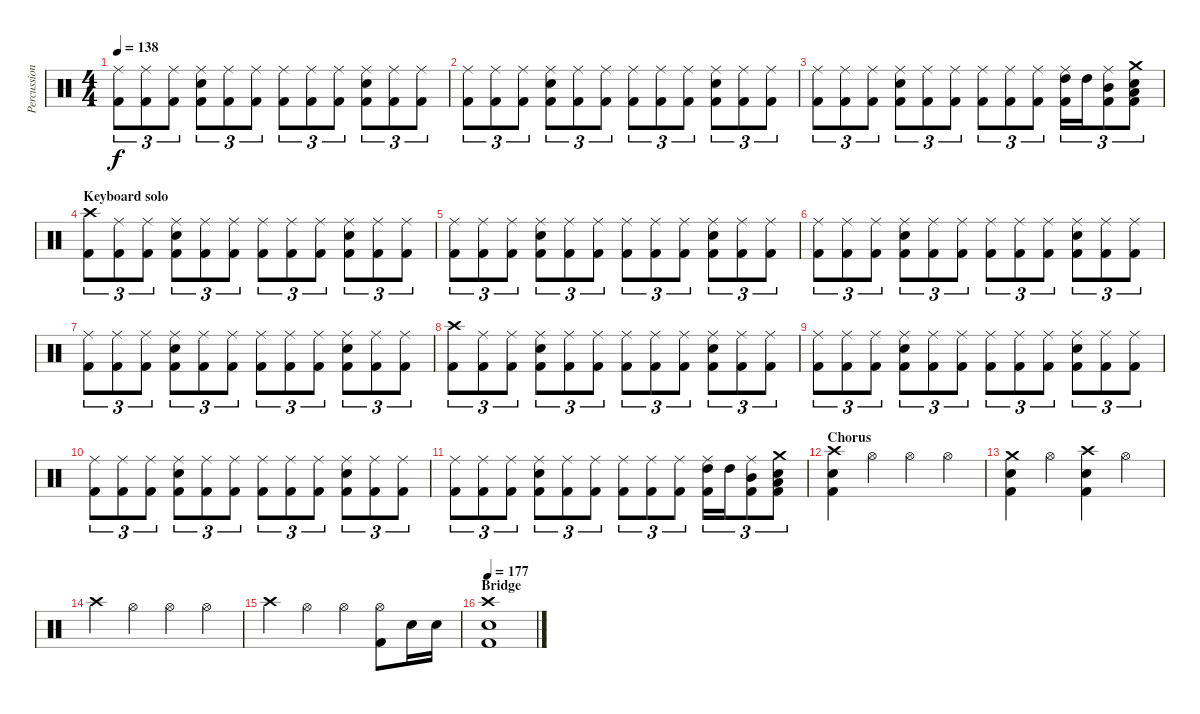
\track ("Percussion" "Percussion") {instrument percussion}
\staff {score}
\articulation defaults
\ts (4 4)
\tempo 138
\clef neutral
\ks c
("Ride (middle)" "Kick (hit) 2").8{tu (3 2) dy f} ("Ride (middle)" "Kick (hit) 2").8{tu (3 2)} ("Ride (middle)" "Kick (hit) 2").8{tu (3 2)} ("Ride (middle)" "Electric Snare (hit)" "Kick (hit) 2").8{tu (3 2)} ("Ride (middle)" "Kick (hit) 2").8{tu (3 2)} ("Ride (middle)" "Kick (hit) 2").8{tu (3 2)} ("Ride (middle)" "Kick (hit) 2").8{tu (3 2)} ("Ride (middle)" "Kick (hit) 2").8{tu (3 2)} ("Ride (middle)" "Kick (hit) 2").8{tu (3 2)} ("Ride (middle)" "Electric Snare (hit)" "Kick (hit) 2").8{tu (3 2)} ("Ride (middle)" "Kick (hit) 2").8{tu (3 2)} ("Ride (middle)" "Kick (hit) 2").8{tu (3 2)} |
("Ride (middle)" "Kick (hit) 2").8{tu (3 2)} ("Ride (middle)" "Kick (hit) 2").8{tu (3 2)} ("Ride (middle)" "Kick (hit) 2").8{tu (3 2)} ("Ride (middle)" "Electric Snare (hit)" "Kick (hit) 2").8{tu (3 2)} ("Ride (middle)" "Kick (hit) 2").8{tu (3 2)} ("Ride (middle)" "Kick (hit) 2").8{tu (3 2)} ("Ride (middle)" "Kick (hit) 2").8{tu (3 2)} ("Ride (middle)" "Kick (hit) 2").8{tu (3 2)} ("Ride (middle)" "Kick (hit) 2").8{tu (3 2)} ("Ride (middle)" "Electric Snare (hit)" "Kick (hit) 2").8{tu (3 2)} ("Ride (middle)" "Kick (hit) 2").8{tu (3 2)} ("Ride (middle)" "Kick (hit) 2").8{tu (3 2)} |
("Ride (middle)" "Kick (hit) 2").8{tu (3 2)} ("Ride (middle)" "Kick (hit) 2").8{tu (3 2)} ("Ride (middle)" "Kick (hit) 2").8{tu (3 2)} ("Ride (middle)" "Electric Snare (hit)" "Kick (hit) 2").8{tu (3 2)} ("Ride (middle)" "Kick (hit) 2").8{tu (3 2)} ("Ride (middle)" "Kick (hit) 2").8{tu (3 2)} ("Ride (middle)" "Kick (hit) 2").8{tu (3 2)} ("Ride (middle)" "Kick (hit) 2").8{tu (3 2)} ("Ride (middle)" "Kick (hit) 2").8{tu (3 2)} ("Ride (middle)" "High Tom (hit)" "Kick (hit) 2").16{tu (3 2)} "High Tom (hit)".16{tu (3 2)} ("Ride (middle)" "Mid Tom (hit)" "Kick (hit) 2").8{tu (3 2)} ("Crash medium (hit)" "Low Floor Tom (hit)" "Electric Snare (hit)" "Kick (hit) 2").8{tu (3 2)} |
\section ("" "Keyboard solo")
("Crash high (hit)" "Kick (hit) 2").8{tu (3 2)} ("Ride (middle)" "Kick (hit) 2").8{tu (3 2)} ("Ride (middle)" "Kick (hit) 2").8{tu (3 2)} ("Ride (middle)" "Electric Snare (hit)" "Kick (hit) 2").8{tu (3 2)} ("Ride (middle)" "Kick (hit) 2").8{tu (3 2)} ("Ride (middle)" "Kick (hit) 2").8{tu (3 2)} ("Ride (middle)" "Kick (hit) 2").8{tu (3 2)} ("Ride (middle)" "Kick (hit) 2").8{tu (3 2)} ("Ride (middle)" "Kick (hit) 2").8{tu (3 2)} ("Ride (middle)" "Electric Snare (hit)" "Kick (hit) 2").8{tu (3 2)} ("Ride (middle)" "Kick (hit) 2").8{tu (3 2)} ("Ride (middle)" "Kick (hit) 2").8{tu (3 2)} |
("Ride (middle)" "Kick (hit) 2").8{tu (3 2)} ("Ride (middle)" "Kick (hit) 2").8{tu (3 2)} ("Ride (middle)" "Kick (hit) 2").8{tu (3 2)} ("Ride (middle)" "Electric Snare (hit)" "Kick (hit) 2").8{tu (3 2)} ("Ride (middle)" "Kick (hit) 2").8{tu (3 2)} ("Ride (middle)" "Kick (hit) 2").8{tu (3 2)} ("Ride (middle)" "Kick (hit) 2").8{tu (3 2)} ("Ride (middle)" "Kick (hit) 2").8{tu (3 2)} ("Ride (middle)" "Kick (hit) 2").8{tu (3 2)} ("Ride (middle)" "Electric Snare (hit)" "Kick (hit) 2").8{tu (3 2)} ("Ride (middle)" "Kick (hit) 2").8{tu (3 2)} ("Ride (middle)" "Kick (hit) 2").8{tu (3 2)} |
("Ride (middle)" "Kick (hit) 2").8{tu (3 2)} ("Ride (middle)" "Kick (hit) 2").8{tu (3 2)} ("Ride (middle)" "Kick (hit) 2").8{tu (3 2)} ("Ride (middle)" "Electric Snare (hit)" "Kick (hit) 2").8{tu (3 2)} ("Ride (middle)" "Kick (hit) 2").8{tu (3 2)} ("Ride (middle)" "Kick (hit) 2").8{tu (3 2)} ("Ride (middle)" "Kick (hit) 2").8{tu (3 2)} ("Ride (middle)" "Kick (hit) 2").8{tu (3 2)} ("Ride (middle)" "Kick (hit) 2").8{tu (3 2)} ("Ride (middle)" "Electric Snare (hit)" "Kick (hit) 2").8{tu (3 2)} ("Ride (middle)" "Kick (hit) 2").8{tu (3 2)} ("Ride (middle)" "Kick (hit) 2").8{tu (3 2)} |
("Ride (middle)" "Kick (hit) 2").8{tu (3 2)} ("Ride (middle)" "Kick (hit) 2").8{tu (3 2)} ("Ride (middle)" "Kick (hit) 2").8{tu (3 2)} ("Ride (middle)" "Electric Snare (hit)" "Kick (hit) 2").8{tu (3 2)} ("Ride (middle)" "Kick (hit) 2").8{tu (3 2)} ("Ride (middle)" "Kick (hit) 2").8{tu (3 2)} ("Ride (middle)" "Kick (hit) 2").8{tu (3 2)} ("Ride (middle)" "Kick (hit) 2").8{tu (3 2)} ("Ride (middle)" "Kick (hit) 2").8{tu (3 2)} ("Ride (middle)" "Electric Snare (hit)" "Kick (hit) 2").8{tu (3 2)} ("Ride (middle)" "Kick (hit) 2").8{tu (3 2)} ("Ride (middle)" "Kick (hit) 2").8{tu (3 2)} |
("Crash high (hit)" "Kick (hit) 2").8{tu (3 2)} ("Ride (middle)" "Kick (hit) 2").8{tu (3 2)} ("Ride (middle)" "Kick (hit) 2").8{tu (3 2)} ("Ride (middle)" "Electric Snare (hit)" "Kick (hit) 2").8{tu (3 2)} ("Ride (middle)" "Kick (hit) 2").8{tu (3 2)} ("Ride (middle)" "Kick (hit) 2").8{tu (3 2)} ("Ride (middle)" "Kick (hit) 2").8{tu (3 2)} ("Ride (middle)" "Kick (hit) 2").8{tu (3 2)} ("Ride (middle)" "Kick (hit) 2").8{tu (3 2)} ("Ride (middle)" "Electric Snare (hit)" "Kick (hit) 2").8{tu (3 2)} ("Ride (middle)" "Kick (hit) 2").8{tu (3 2)} ("Ride (middle)" "Kick (hit) 2").8{tu (3 2)} |
("Ride (middle)" "Kick (hit) 2").8{tu (3 2)} ("Ride (middle)" "Kick (hit) 2").8{tu (3 2)} ("Ride (middle)" "Kick (hit) 2").8{tu (3 2)} ("Ride (middle)" "Electric Snare (hit)" "Kick (hit) 2").8{tu (3 2)} ("Ride (middle)" "Kick (hit) 2").8{tu (3 2)} ("Ride (middle)" "Kick (hit) 2").8{tu (3 2)} ("Ride (middle)" "Kick (hit) 2").8{tu (3 2)} ("Ride (middle)" "Kick (hit) 2").8{tu (3 2)} ("Ride (middle)" "Kick (hit) 2").8{tu (3 2)} ("Ride (middle)" "Electric Snare (hit)" "Kick (hit) 2").8{tu (3 2)} ("Ride (middle)" "Kick (hit) 2").8{tu (3 2)} ("Ride (middle)" "Kick (hit) 2").8{tu (3 2)} |
("Ride (middle)" "Kick (hit) 2").8{tu (3 2)} ("Ride (middle)" "Kick (hit) 2").8{tu (3 2)} ("Ride (middle)" "Kick (hit) 2").8{tu (3 2)} ("Ride (middle)" "Electric Snare (hit)" "Kick (hit) 2").8{tu (3 2)} ("Ride (middle)" "Kick (hit) 2").8{tu (3 2)} ("Ride (middle)" "Kick (hit) 2").8{tu (3 2)} ("Ride (middle)" "Kick (hit) 2").8{tu (3 2)} ("Ride (middle)" "Kick (hit) 2").8{tu (3 2)} ("Ride (middle)" "Kick (hit) 2").8{tu (3 2)} ("Ride (middle)" "Electric Snare (hit)" "Kick (hit) 2").8{tu (3 2)} ("Ride (middle)" "Kick (hit) 2").8{tu (3 2)} ("Ride (middle)" "Kick (hit) 2").8{tu (3 2)} |
("Ride (middle)" "Kick (hit) 2").8{tu (3 2)} ("Ride (middle)" "Kick (hit) 2").8{tu (3 2)} ("Ride (middle)" "Kick (hit) 2").8{tu (3 2)} ("Ride (middle)" "Electric Snare (hit)" "Kick (hit) 2").8{tu (3 2)} ("Ride (middle)" "Kick (hit) 2").8{tu (3 2)} ("Ride (middle)" "Kick (hit) 2").8{tu (3 2)} ("Ride (middle)" "Kick (hit) 2").8{tu (3 2)} ("Ride (middle)" "Kick (hit) 2").8{tu (3 2)} ("Ride (middle)" "Kick (hit) 2").8{tu (3 2)} ("Ride (middle)" "High Tom (hit)" "Kick (hit) 2").16{tu (3 2)} "High Tom (hit)".16{tu (3 2)} ("Ride (middle)" "Mid Tom (hit)" "Kick (hit) 2").8{tu (3 2)} ("Crash medium (hit)" "Low Floor Tom (hit)" "Electric Snare (hit)" "Kick (hit) 2").8{tu (3 2)} |
\section ("" "Chorus")
("Crash high (hit)" "Electric Snare (hit)" "Kick (hit) 2").4 "Hi-Hat (open)".4 "Hi-Hat (open)".4 "Hi-Hat (open)".4 |
("Crash medium (hit)" "Electric Snare (hit)" "Kick (hit) 2").4 "Hi-Hat (open)".4 ("Crash high (hit)" "Electric Snare (hit)" "Kick (hit) 2").4 "Hi-Hat (open)".4 |
"Crash high (hit)".4 "Hi-Hat (open)".4 "Hi-Hat (open)".4 "Hi-Hat (open)".4 |
"Crash high (hit)".4 "Hi-Hat (open)".4 "Hi-Hat (open)".4 ("Hi-Hat (open)" "Kick (hit) 2").8 "Electric Snare (hit)".16 "Electric Snare (hit)".16 |
\section ("" "Bridge")
\tempo 177
("Crash high (hit)" "Electric Snare (hit)" "Kick (hit) 2").1
